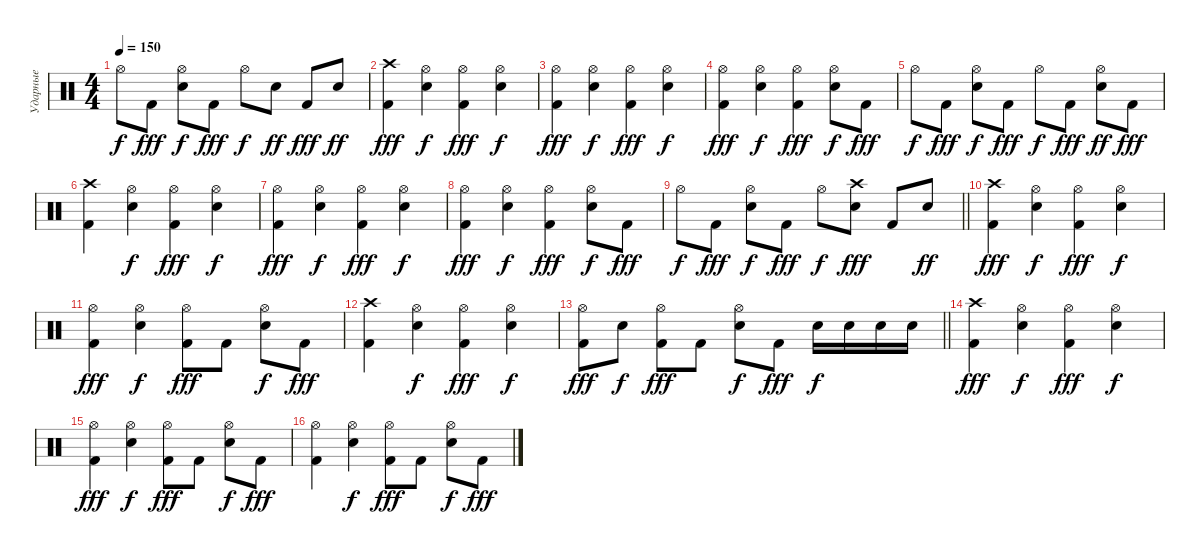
\track ("Ударные" "Ударные") {instrument percussion}
\staff {score}
\articulation defaults
\ts (4 4)
\tempo 150
\clef neutral
\ks c "Hi-Hat (open)".8{dy f} "Kick (hit) 2".8{dy fff}
("Snare (hit) 2" "Hi-Hat (open)").8{dy f} "Kick (hit) 2".8{dy fff} "Hi-Hat (open)".8{dy f} "Snare (hit) 2".8{dy ff} "Kick (hit) 2".8{dy fff} "Snare (hit) 2".8{dy ff} |
("Kick (hit) 2" "Crash high (hit)").4{dy fff} ("Snare (hit) 2" "Hi-Hat (open)").4{dy f} ("Kick (hit) 2" "Hi-Hat (open)").4{dy fff} ("Snare (hit) 2" "Hi-Hat (open)").4{dy f} |
("Kick (hit) 2" "Hi-Hat (open)").4{dy fff} ("Snare (hit) 2" "Hi-Hat (open)").4{dy f} ("Kick (hit) 2" "Hi-Hat (open)").4{dy fff} ("Snare (hit) 2" "Hi-Hat (open)").4{dy f} |
("Kick (hit) 2" "Hi-Hat (open)").4{dy fff} ("Snare (hit) 2" "Hi-Hat (open)").4{dy f} ("Kick (hit) 2" "Hi-Hat (open)").4{dy fff} ("Snare (hit) 2" "Hi-Hat (open)").8{dy f} "Kick (hit) 2".8{dy fff} |
"Hi-Hat (open)".8{dy f} "Kick (hit) 2".8{dy fff} ("Snare (hit) 2" "Hi-Hat (open)").8{dy f} "Kick (hit) 2".8{dy fff} "Hi-Hat (open)".8{dy f} "Kick (hit) 2".8{dy fff} ("Snare (hit) 2" "Hi-Hat (open)").8{dy ff} "Kick (hit) 2".8{dy fff} |
("Kick (hit) 2" "Crash high (hit)").4 ("Snare (hit) 2" "Hi-Hat (open)").4{dy f} ("Kick (hit) 2" "Hi-Hat (open)").4{dy fff} ("Snare (hit) 2" "Hi-Hat (open)").4{dy f} |
("Kick (hit) 2" "Hi-Hat (open)").4{dy fff} ("Snare (hit) 2" "Hi-Hat (open)").4{dy f} ("Kick (hit) 2" "Hi-Hat (open)").4{dy fff} ("Snare (hit) 2" "Hi-Hat (open)").4{dy f} |
("Kick (hit) 2" "Hi-Hat (open)").4{dy fff} ("Snare (hit) 2" "Hi-Hat (open)").4{dy f} ("Kick (hit) 2" "Hi-Hat (open)").4{dy fff} ("Snare (hit) 2" "Hi-Hat (open)").8{dy f} "Kick (hit) 2".8{dy fff} |
\barLineRight lightlight "Hi-Hat (open)".8{dy f} "Kick (hit) 2".8{dy fff}
("Snare (hit) 2" "Hi-Hat (open)").8{dy f} "Kick (hit) 2".8{dy fff} "Hi-Hat (open)".8{dy f} ("Snare (hit) 2" "Crash high (hit)").8{dy fff} "Kick (hit) 2".8 "Snare (hit) 2".8{dy ff} |
("Kick (hit) 2" "Crash high (hit)").4{dy fff} ("Snare (hit) 2" "Hi-Hat (open)").4{dy f} ("Kick (hit) 2" "Hi-Hat (open)").4{dy fff} ("Snare (hit) 2" "Hi-Hat (open)").4{dy f} |
("Kick (hit) 2" "Hi-Hat (open)").4{dy fff} ("Snare (hit) 2" "Hi-Hat (open)").4{dy f} ("Kick (hit) 2" "Hi-Hat (open)").8{dy fff} "Kick (hit) 2".8 ("Snare (hit) 2" "Hi-Hat (open)").8{dy f} "Kick (hit) 2".8{dy fff} |
("Kick (hit) 2" "Crash high (hit)").4 ("Snare (hit) 2" "Hi-Hat (open)").4{dy f} ("Kick (hit) 2" "Hi-Hat (open)").4{dy fff} ("Snare (hit) 2" "Hi-Hat (open)").4{dy f} |
\barLineRight lightlight
("Kick (hit) 2" "Hi-Hat (open)").8{dy fff} "Snare (hit) 2".8{dy f} ("Kick (hit) 2" "Hi-Hat (open)").8{dy fff} "Kick (hit) 2".8 ("Snare (hit) 2" "Hi-Hat (open)").8{dy f} "Kick (hit) 2".8{dy fff} "Snare (hit) 2".16{dy f} "Snare (hit) 2".16 "Snare (hit) 2".16 "Snare (hit) 2".16 |
("Kick (hit) 2" "Crash high (hit)").4{dy fff} ("Snare (hit) 2" "Hi-Hat (open)").4{dy f} ("Kick (hit) 2" "Hi-Hat (open)").4{dy fff} ("Snare (hit) 2" "Hi-Hat (open)").4{dy f} |
("Kick (hit) 2" "Hi-Hat (open)").4{dy fff} ("Snare (hit) 2" "Hi-Hat (open)").4{dy f} ("Kick (hit) 2" "Hi-Hat (open)").8{dy fff} "Kick (hit) 2".8 ("Snare (hit) 2" "Hi-Hat (open)").8{dy f} "Kick (hit) 2".8{dy fff} |
("Kick (hit) 2" "Hi-Hat (open)").4 ("Snare (hit) 2" "Hi-Hat (open)").4{dy f} ("Kick (hit) 2" "Hi-Hat (open)").8{dy fff} "Kick (hit) 2".8 ("Snare (hit) 2" "Hi-Hat (open)").8{dy f} "Kick (hit) 2".8{dy fff}
